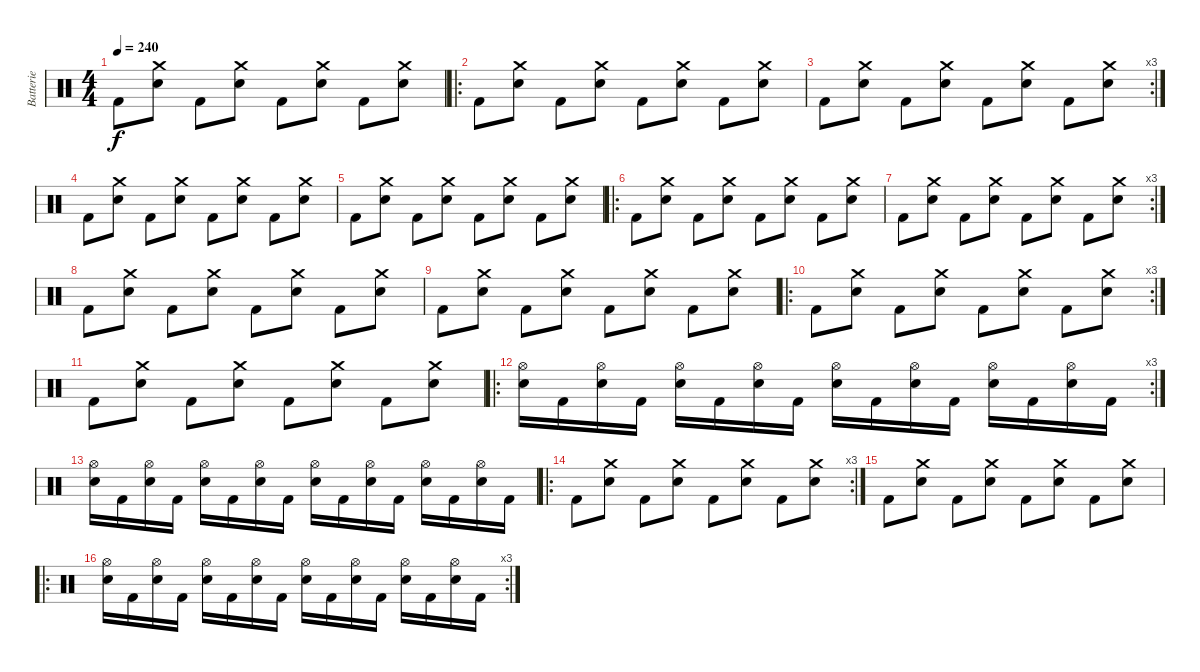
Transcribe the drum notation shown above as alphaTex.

\track ("Batterie" "Batterie") {instrument percussion}
\staff {score}
\articulation defaults
\ts (4 4)
\tempo 240
\clef neutral
\ks c "Kick (hit) 2".8{dy f}
("Crash medium (hit)" "Snare (hit) 2").8 "Kick (hit) 2".8 ("Crash medium (hit)" "Snare (hit) 2").8 "Kick (hit) 2".8 ("Crash medium (hit)" "Snare (hit) 2").8 "Kick (hit) 2".8 ("Crash medium (hit)" "Snare (hit) 2").8 |
\ro "Kick (hit) 2".8
("Crash medium (hit)" "Snare (hit) 2").8 "Kick (hit) 2".8 ("Crash medium (hit)" "Snare (hit) 2").8 "Kick (hit) 2".8 ("Crash medium (hit)" "Snare (hit) 2").8 "Kick (hit) 2".8 ("Crash medium (hit)" "Snare (hit) 2").8 |
\rc 3 "Kick (hit) 2".8
("Crash medium (hit)" "Snare (hit) 2").8 "Kick (hit) 2".8 ("Crash medium (hit)" "Snare (hit) 2").8 "Kick (hit) 2".8 ("Crash medium (hit)" "Snare (hit) 2").8 "Kick (hit) 2".8 ("Crash medium (hit)" "Snare (hit) 2").8 |
"Kick (hit) 2".8 ("Crash medium (hit)" "Snare (hit) 2").8 "Kick (hit) 2".8 ("Crash medium (hit)" "Snare (hit) 2").8 "Kick (hit) 2".8 ("Crash medium (hit)" "Snare (hit) 2").8 "Kick (hit) 2".8 ("Crash medium (hit)" "Snare (hit) 2").8 |
"Kick (hit) 2".8 ("Crash medium (hit)" "Snare (hit) 2").8 "Kick (hit) 2".8 ("Crash medium (hit)" "Snare (hit) 2").8 "Kick (hit) 2".8 ("Crash medium (hit)" "Snare (hit) 2").8 "Kick (hit) 2".8 ("Crash medium (hit)" "Snare (hit) 2").8 |
\ro "Kick (hit) 2".8
("Crash medium (hit)" "Snare (hit) 2").8 "Kick (hit) 2".8 ("Crash medium (hit)" "Snare (hit) 2").8 "Kick (hit) 2".8 ("Crash medium (hit)" "Snare (hit) 2").8 "Kick (hit) 2".8 ("Crash medium (hit)" "Snare (hit) 2").8 |
\rc 3 "Kick (hit) 2".8
("Crash medium (hit)" "Snare (hit) 2").8 "Kick (hit) 2".8 ("Crash medium (hit)" "Snare (hit) 2").8 "Kick (hit) 2".8 ("Crash medium (hit)" "Snare (hit) 2").8 "Kick (hit) 2".8 ("Crash medium (hit)" "Snare (hit) 2").8 |
"Kick (hit) 2".8 ("Crash medium (hit)" "Snare (hit) 2").8 "Kick (hit) 2".8 ("Crash medium (hit)" "Snare (hit) 2").8 "Kick (hit) 2".8 ("Crash medium (hit)" "Snare (hit) 2").8 "Kick (hit) 2".8 ("Crash medium (hit)" "Snare (hit) 2").8 |
"Kick (hit) 2".8 ("Crash medium (hit)" "Snare (hit) 2").8 "Kick (hit) 2".8 ("Crash medium (hit)" "Snare (hit) 2").8 "Kick (hit) 2".8 ("Crash medium (hit)" "Snare (hit) 2").8 "Kick (hit) 2".8 ("Crash medium (hit)" "Snare (hit) 2").8 |
\ro
\rc 3 "Kick (hit) 2".8
("Crash medium (hit)" "Snare (hit) 2").8 "Kick (hit) 2".8 ("Crash medium (hit)" "Snare (hit) 2").8 "Kick (hit) 2".8 ("Crash medium (hit)" "Snare (hit) 2").8 "Kick (hit) 2".8 ("Crash medium (hit)" "Snare (hit) 2").8 |
"Kick (hit) 2".8 ("Crash medium (hit)" "Snare (hit) 2").8 "Kick (hit) 2".8 ("Crash medium (hit)" "Snare (hit) 2").8 "Kick (hit) 2".8 ("Crash medium (hit)" "Snare (hit) 2").8 "Kick (hit) 2".8 ("Crash medium (hit)" "Snare (hit) 2").8 |
\ro
\rc 3
("Hi-Hat (open)" "Snare (hit) 2").16 "Kick (hit) 2".16 ("Hi-Hat (open)" "Snare (hit) 2").16 "Kick (hit) 2".16 ("Hi-Hat (open)" "Snare (hit) 2").16 "Kick (hit) 2".16 ("Hi-Hat (open)" "Snare (hit) 2").16 "Kick (hit) 2".16 ("Hi-Hat (open)" "Snare (hit) 2").16 "Kick (hit) 2".16 ("Hi-Hat (open)" "Snare (hit) 2").16 "Kick (hit) 2".16 ("Hi-Hat (open)" "Snare (hit) 2").16 "Kick (hit) 2".16 ("Hi-Hat (open)" "Snare (hit) 2").16 "Kick (hit) 2".16 |
("Hi-Hat (open)" "Snare (hit) 2").16 "Kick (hit) 2".16 ("Hi-Hat (open)" "Snare (hit) 2").16 "Kick (hit) 2".16 ("Hi-Hat (open)" "Snare (hit) 2").16 "Kick (hit) 2".16 ("Hi-Hat (open)" "Snare (hit) 2").16 "Kick (hit) 2".16 ("Hi-Hat (open)" "Snare (hit) 2").16 "Kick (hit) 2".16 ("Hi-Hat (open)" "Snare (hit) 2").16 "Kick (hit) 2".16 ("Hi-Hat (open)" "Snare (hit) 2").16 "Kick (hit) 2".16 ("Hi-Hat (open)" "Snare (hit) 2").16 "Kick (hit) 2".16 |
\ro
\rc 3 "Kick (hit) 2".8
("Crash medium (hit)" "Snare (hit) 2").8 "Kick (hit) 2".8 ("Crash medium (hit)" "Snare (hit) 2").8 "Kick (hit) 2".8 ("Crash medium (hit)" "Snare (hit) 2").8 "Kick (hit) 2".8 ("Crash medium (hit)" "Snare (hit) 2").8 |
"Kick (hit) 2".8 ("Crash medium (hit)" "Snare (hit) 2").8 "Kick (hit) 2".8 ("Crash medium (hit)" "Snare (hit) 2").8 "Kick (hit) 2".8 ("Crash medium (hit)" "Snare (hit) 2").8 "Kick (hit) 2".8 ("Crash medium (hit)" "Snare (hit) 2").8 |
\ro
\rc 3
("Hi-Hat (open)" "Snare (hit) 2").16 "Kick (hit) 2".16 ("Hi-Hat (open)" "Snare (hit) 2").16 "Kick (hit) 2".16 ("Hi-Hat (open)" "Snare (hit) 2").16 "Kick (hit) 2".16 ("Hi-Hat (open)" "Snare (hit) 2").16 "Kick (hit) 2".16 ("Hi-Hat (open)" "Snare (hit) 2").16 "Kick (hit) 2".16 ("Hi-Hat (open)" "Snare (hit) 2").16 "Kick (hit) 2".16 ("Hi-Hat (open)" "Snare (hit) 2").16 "Kick (hit) 2".16 ("Hi-Hat (open)" "Snare (hit) 2").16 "Kick (hit) 2".16
